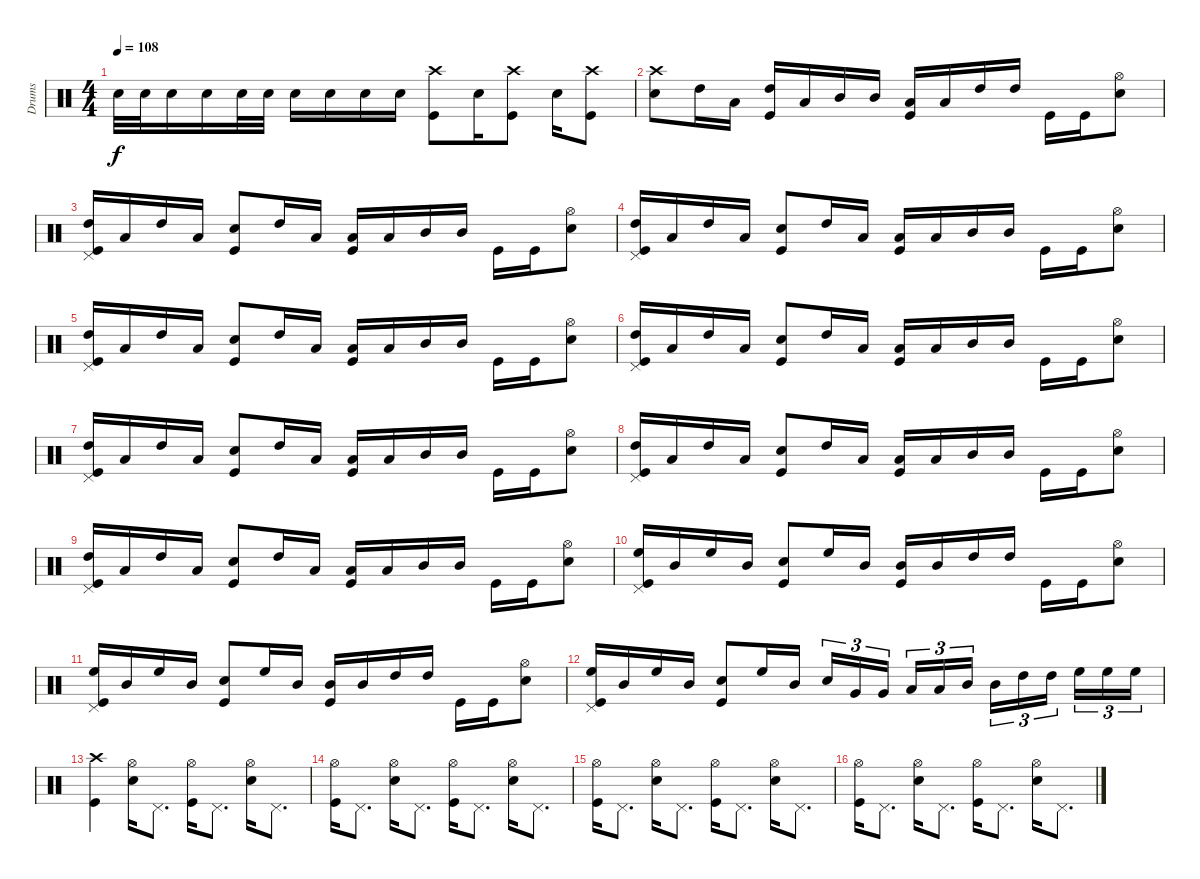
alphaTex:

\track ("Drums" "Drums") {instrument percussion}
\staff {score}
\articulation defaults
\ts (4 4)
\tempo 108
\clef neutral
\ks c "Snare (hit) 2".32{dy f} "Snare (hit) 2".32 "Snare (hit) 2".16 "Snare (hit) 2".16 "Snare (hit) 2".32 "Snare (hit) 2".32 "Snare (hit) 2".16 "Snare (hit) 2".16 "Snare (hit) 2".16 "Snare (hit) 2".16
("Crash high (hit)" "Kick (hit)").8 "Electric Snare (hit)".16 ("Crash high (hit)" "Kick (hit)").8 "Electric Snare (hit)".16 ("Crash high (hit)" "Kick (hit)").8 |
("Crash high (hit)" "Snare (hit) 2").8 "High Tom (hit)".16 "Low Tom (hit)".16 ("High Tom (hit)" "Kick (hit)").16 "Low Tom (hit)".16 "Mid Tom (hit)".16 "Mid Tom (hit)".16 ("Low Tom (hit)" "Kick (hit)").16 "Low Tom (hit)".16 "High Tom (hit)".16 "High Tom (hit)".16 "Kick (hit)".16 "Kick (hit)".16 ("Hi-Hat (open)" "Snare (hit) 2").8 |
("Pedal Hi-Hat (hit)" "High Tom (hit)" "Kick (hit)").16 "Low Tom (hit)".16 "High Tom (hit)".16 "Low Tom (hit)".16 ("Snare (hit) 2" "Kick (hit)").8 "High Tom (hit)".16 "Low Tom (hit)".16 ("Low Tom (hit)" "Kick (hit)").16 "Low Tom (hit)".16 "Mid Tom (hit)".16 "Mid Tom (hit)".16 "Kick (hit)".16 "Kick (hit)".16 ("Hi-Hat (open)" "Snare (hit) 2").8 |
("Pedal Hi-Hat (hit)" "High Tom (hit)" "Kick (hit)").16 "Low Tom (hit)".16 "High Tom (hit)".16 "Low Tom (hit)".16 ("Snare (hit) 2" "Kick (hit)").8 "High Tom (hit)".16 "Low Tom (hit)".16 ("Low Tom (hit)" "Kick (hit)").16 "Low Tom (hit)".16 "Mid Tom (hit)".16 "Mid Tom (hit)".16 "Kick (hit)".16 "Kick (hit)".16 ("Hi-Hat (open)" "Snare (hit) 2").8 |
("Pedal Hi-Hat (hit)" "High Tom (hit)" "Kick (hit)").16 "Low Tom (hit)".16 "High Tom (hit)".16 "Low Tom (hit)".16 ("Snare (hit) 2" "Kick (hit)").8 "High Tom (hit)".16 "Low Tom (hit)".16 ("Low Tom (hit)" "Kick (hit)").16 "Low Tom (hit)".16 "Mid Tom (hit)".16 "Mid Tom (hit)".16 "Kick (hit)".16 "Kick (hit)".16 ("Hi-Hat (open)" "Snare (hit) 2").8 |
("Pedal Hi-Hat (hit)" "High Tom (hit)" "Kick (hit)").16 "Low Tom (hit)".16 "High Tom (hit)".16 "Low Tom (hit)".16 ("Snare (hit) 2" "Kick (hit)").8 "High Tom (hit)".16 "Low Tom (hit)".16 ("Low Tom (hit)" "Kick (hit)").16 "Low Tom (hit)".16 "Mid Tom (hit)".16 "Mid Tom (hit)".16 "Kick (hit)".16 "Kick (hit)".16 ("Hi-Hat (open)" "Snare (hit) 2").8 |
("Pedal Hi-Hat (hit)" "High Tom (hit)" "Kick (hit)").16 "Low Tom (hit)".16 "High Tom (hit)".16 "Low Tom (hit)".16 ("Snare (hit) 2" "Kick (hit)").8 "High Tom (hit)".16 "Low Tom (hit)".16 ("Low Tom (hit)" "Kick (hit)").16 "Low Tom (hit)".16 "Mid Tom (hit)".16 "Mid Tom (hit)".16 "Kick (hit)".16 "Kick (hit)".16 ("Hi-Hat (open)" "Snare (hit) 2").8 |
("Pedal Hi-Hat (hit)" "High Tom (hit)" "Kick (hit)").16 "Low Tom (hit)".16 "High Tom (hit)".16 "Low Tom (hit)".16 ("Snare (hit) 2" "Kick (hit)").8 "High Tom (hit)".16 "Low Tom (hit)".16 ("Low Tom (hit)" "Kick (hit)").16 "Low Tom (hit)".16 "Mid Tom (hit)".16 "Mid Tom (hit)".16 "Kick (hit)".16 "Kick (hit)".16 ("Hi-Hat (open)" "Snare (hit) 2").8 |
("Pedal Hi-Hat (hit)" "High Tom (hit)" "Kick (hit)").16 "Low Tom (hit)".16 "High Tom (hit)".16 "Low Tom (hit)".16 ("Snare (hit) 2" "Kick (hit)").8 "High Tom (hit)".16 "Low Tom (hit)".16 ("Low Tom (hit)" "Kick (hit)").16 "Low Tom (hit)".16 "Mid Tom (hit)".16 "Mid Tom (hit)".16 "Kick (hit)".16 "Kick (hit)".16 ("Hi-Hat (open)" "Snare (hit) 2").8 |
("Pedal Hi-Hat (hit)" "High Floor Tom (hit)" "Kick (hit)").16 "Mid Tom (hit)".16 "High Floor Tom (hit)".16 "Mid Tom (hit)".16 ("Snare (hit) 2" "Kick (hit)").8 "High Floor Tom (hit)".16 "Mid Tom (hit)".16 ("Mid Tom (hit)" "Kick (hit)").16 "Mid Tom (hit)".16 "High Tom (hit)".16 "High Tom (hit)".16 "Kick (hit)".16 "Kick (hit)".16 ("Hi-Hat (open)" "Snare (hit) 2").8 |
("Pedal Hi-Hat (hit)" "High Floor Tom (hit)" "Kick (hit)").16 "Mid Tom (hit)".16 "High Floor Tom (hit)".16 "Mid Tom (hit)".16 ("Snare (hit) 2" "Kick (hit)").8 "High Floor Tom (hit)".16 "Mid Tom (hit)".16 ("Mid Tom (hit)" "Kick (hit)").16 "Mid Tom (hit)".16 "High Tom (hit)".16 "High Tom (hit)".16 "Kick (hit)".16 "Kick (hit)".16 ("Hi-Hat (open)" "Snare (hit) 2").8 |
("Pedal Hi-Hat (hit)" "High Floor Tom (hit)" "Kick (hit)").16 "Mid Tom (hit)".16 "High Floor Tom (hit)".16 "Mid Tom (hit)".16 ("Snare (hit) 2" "Kick (hit)").8 "High Floor Tom (hit)".16 "Mid Tom (hit)".16 "Snare (hit) 2".16{tu (3 2)} "Very Low Tom (hit)".16{tu (3 2)} "Very Low Tom (hit)".16{tu (3 2)} "Low Tom (hit)".16{tu (3 2)} "Low Tom (hit)".16{tu (3 2)} "Mid Tom (hit)".16{tu (3 2)} "Mid Tom (hit)".16{tu (3 2)} "High Tom (hit)".16{tu (3 2)} "High Tom (hit)".16{tu (3 2)} "High Floor Tom (hit)".16{tu (3 2)} "High Floor Tom (hit)".16{tu (3 2)} "High Floor Tom (hit)".16{tu (3 2)} |
("Crash high (hit)" "Kick (hit)").4 ("Hi-Hat (open)" "Snare (hit) 2").16 "Pedal Hi-Hat (hit)".8{d} ("Hi-Hat (open)" "Kick (hit)").16 "Pedal Hi-Hat (hit)".8{d} ("Hi-Hat (open)" "Snare (hit) 2").16 "Pedal Hi-Hat (hit)".8{d} |
("Hi-Hat (open)" "Kick (hit)").16 "Pedal Hi-Hat (hit)".8{d} ("Hi-Hat (open)" "Snare (hit) 2").16 "Pedal Hi-Hat (hit)".8{d} ("Hi-Hat (open)" "Kick (hit)").16 "Pedal Hi-Hat (hit)".8{d} ("Hi-Hat (open)" "Snare (hit) 2").16 "Pedal Hi-Hat (hit)".8{d} |
("Hi-Hat (open)" "Kick (hit)").16 "Pedal Hi-Hat (hit)".8{d} ("Hi-Hat (open)" "Snare (hit) 2").16 "Pedal Hi-Hat (hit)".8{d} ("Hi-Hat (open)" "Kick (hit)").16 "Pedal Hi-Hat (hit)".8{d} ("Hi-Hat (open)" "Snare (hit) 2").16 "Pedal Hi-Hat (hit)".8{d} |
("Hi-Hat (open)" "Kick (hit)").16 "Pedal Hi-Hat (hit)".8{d} ("Hi-Hat (open)" "Snare (hit) 2").16 "Pedal Hi-Hat (hit)".8{d} ("Hi-Hat (open)" "Kick (hit)").16 "Pedal Hi-Hat (hit)".8{d} ("Hi-Hat (open)" "Snare (hit) 2").16 "Pedal Hi-Hat (hit)".8{d}
